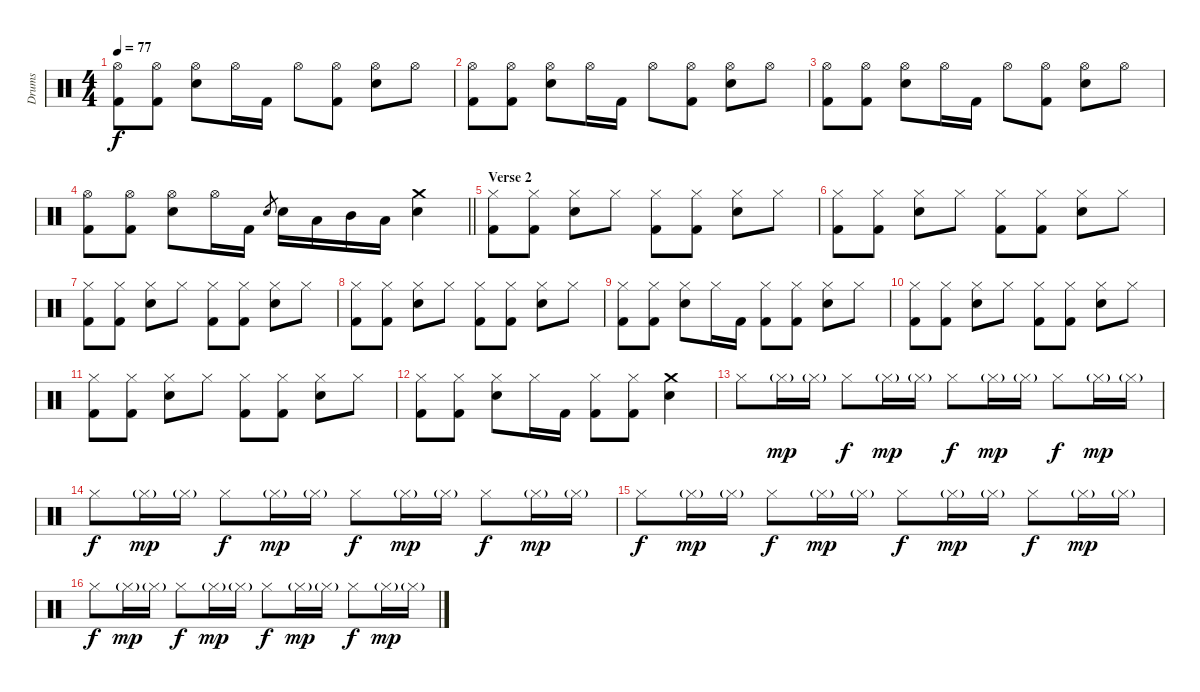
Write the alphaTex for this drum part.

\track ("Drums" "Drums") {instrument percussion}
\staff {score}
\articulation defaults
\ts (4 4)
\tempo 77
\clef neutral
\ks c
("Kick (hit) 2" "Hi-Hat (open)").8{dy f} ("Kick (hit) 2" "Hi-Hat (open)").8 ("Electric Snare (hit)" "Hi-Hat (open)").8 "Hi-Hat (open)".16 "Kick (hit) 2".16 "Hi-Hat (open)".8 ("Kick (hit) 2" "Hi-Hat (open)").8 ("Electric Snare (hit)" "Hi-Hat (open)").8 "Hi-Hat (open)".8 |
("Kick (hit) 2" "Hi-Hat (open)").8 ("Kick (hit) 2" "Hi-Hat (open)").8 ("Electric Snare (hit)" "Hi-Hat (open)").8 "Hi-Hat (open)".16 "Kick (hit) 2".16 "Hi-Hat (open)".8 ("Kick (hit) 2" "Hi-Hat (open)").8 ("Electric Snare (hit)" "Hi-Hat (open)").8 "Hi-Hat (open)".8 |
("Kick (hit) 2" "Hi-Hat (open)").8 ("Kick (hit) 2" "Hi-Hat (open)").8 ("Electric Snare (hit)" "Hi-Hat (open)").8 "Hi-Hat (open)".16 "Kick (hit) 2".16 "Hi-Hat (open)".8 ("Kick (hit) 2" "Hi-Hat (open)").8 ("Electric Snare (hit)" "Hi-Hat (open)").8 "Hi-Hat (open)".8 |
\barLineRight lightlight
("Kick (hit) 2" "Hi-Hat (open)").8 ("Kick (hit) 2" "Hi-Hat (open)").8 ("Electric Snare (hit)" "Hi-Hat (open)").8 "Hi-Hat (open)".16 "Kick (hit) 2".16 "Electric Snare (hit)".8{gr} "Electric Snare (hit)".16 "Low Tom (hit)".16 "Mid Tom (hit)".16 "Low Tom (hit)".16 ("Electric Snare (hit)" "Crash medium (hit)").4 |
\section ("" "Verse 2")
("Kick (hit) 2" "Hi-Hat (closed)").8 ("Kick (hit) 2" "Hi-Hat (closed)").8 ("Electric Snare (hit)" "Hi-Hat (closed)").8 "Hi-Hat (closed)".8 ("Kick (hit) 2" "Hi-Hat (closed)").8 ("Kick (hit) 2" "Hi-Hat (closed)").8 ("Electric Snare (hit)" "Hi-Hat (closed)").8 "Hi-Hat (closed)".8 |
("Kick (hit) 2" "Hi-Hat (closed)").8 ("Kick (hit) 2" "Hi-Hat (closed)").8 ("Electric Snare (hit)" "Hi-Hat (closed)").8 "Hi-Hat (closed)".8 ("Kick (hit) 2" "Hi-Hat (closed)").8 ("Kick (hit) 2" "Hi-Hat (closed)").8 ("Electric Snare (hit)" "Hi-Hat (closed)").8 "Hi-Hat (closed)".8 |
("Kick (hit) 2" "Hi-Hat (closed)").8 ("Kick (hit) 2" "Hi-Hat (closed)").8 ("Electric Snare (hit)" "Hi-Hat (closed)").8 "Hi-Hat (closed)".8 ("Kick (hit) 2" "Hi-Hat (closed)").8 ("Kick (hit) 2" "Hi-Hat (closed)").8 ("Electric Snare (hit)" "Hi-Hat (closed)").8 "Hi-Hat (closed)".8 |
("Kick (hit) 2" "Hi-Hat (closed)").8 ("Kick (hit) 2" "Hi-Hat (closed)").8 ("Electric Snare (hit)" "Hi-Hat (closed)").8 "Hi-Hat (closed)".8 ("Kick (hit) 2" "Hi-Hat (closed)").8 ("Kick (hit) 2" "Hi-Hat (closed)").8 ("Electric Snare (hit)" "Hi-Hat (closed)").8 "Hi-Hat (closed)".8 |
("Kick (hit) 2" "Hi-Hat (closed)").8 ("Kick (hit) 2" "Hi-Hat (closed)").8 ("Electric Snare (hit)" "Hi-Hat (closed)").8 "Hi-Hat (closed)".16 "Kick (hit) 2".16 ("Kick (hit) 2" "Hi-Hat (closed)").8 ("Kick (hit) 2" "Hi-Hat (closed)").8 ("Electric Snare (hit)" "Hi-Hat (closed)").8 "Hi-Hat (closed)".8 |
("Kick (hit) 2" "Hi-Hat (closed)").8 ("Kick (hit) 2" "Hi-Hat (closed)").8 ("Electric Snare (hit)" "Hi-Hat (closed)").8 "Hi-Hat (closed)".8 ("Kick (hit) 2" "Hi-Hat (closed)").8 ("Kick (hit) 2" "Hi-Hat (closed)").8 ("Electric Snare (hit)" "Hi-Hat (closed)").8 "Hi-Hat (closed)".8 |
("Kick (hit) 2" "Hi-Hat (closed)").8 ("Kick (hit) 2" "Hi-Hat (closed)").8 ("Electric Snare (hit)" "Hi-Hat (closed)").8 "Hi-Hat (closed)".8 ("Kick (hit) 2" "Hi-Hat (closed)").8 ("Kick (hit) 2" "Hi-Hat (closed)").8 ("Electric Snare (hit)" "Hi-Hat (closed)").8 "Hi-Hat (closed)".8 |
("Kick (hit) 2" "Hi-Hat (closed)").8 ("Kick (hit) 2" "Hi-Hat (closed)").8 ("Electric Snare (hit)" "Hi-Hat (closed)").8 "Hi-Hat (closed)".16 "Kick (hit) 2".16 ("Kick (hit) 2" "Hi-Hat (closed)").8 ("Kick (hit) 2" "Hi-Hat (closed)").8 ("Electric Snare (hit)" "Crash medium (hit)").4 |
"Hi-Hat (closed)".8 "Hi-Hat (closed)"{g}.16{dy mp} "Hi-Hat (closed)"{g}.16 "Hi-Hat (closed)".8{dy f} "Hi-Hat (closed)"{g}.16{dy mp} "Hi-Hat (closed)"{g}.16 "Hi-Hat (closed)".8{dy f} "Hi-Hat (closed)"{g}.16{dy mp} "Hi-Hat (closed)"{g}.16 "Hi-Hat (closed)".8{dy f} "Hi-Hat (closed)"{g}.16{dy mp} "Hi-Hat (closed)"{g}.16 |
"Hi-Hat (closed)".8{dy f} "Hi-Hat (closed)"{g}.16{dy mp} "Hi-Hat (closed)"{g}.16 "Hi-Hat (closed)".8{dy f} "Hi-Hat (closed)"{g}.16{dy mp} "Hi-Hat (closed)"{g}.16 "Hi-Hat (closed)".8{dy f} "Hi-Hat (closed)"{g}.16{dy mp} "Hi-Hat (closed)"{g}.16 "Hi-Hat (closed)".8{dy f} "Hi-Hat (closed)"{g}.16{dy mp} "Hi-Hat (closed)"{g}.16 |
"Hi-Hat (closed)".8{dy f} "Hi-Hat (closed)"{g}.16{dy mp} "Hi-Hat (closed)"{g}.16 "Hi-Hat (closed)".8{dy f} "Hi-Hat (closed)"{g}.16{dy mp} "Hi-Hat (closed)"{g}.16 "Hi-Hat (closed)".8{dy f} "Hi-Hat (closed)"{g}.16{dy mp} "Hi-Hat (closed)"{g}.16 "Hi-Hat (closed)".8{dy f} "Hi-Hat (closed)"{g}.16{dy mp} "Hi-Hat (closed)"{g}.16 |
"Hi-Hat (closed)".8{dy f} "Hi-Hat (closed)"{g}.16{dy mp} "Hi-Hat (closed)"{g}.16 "Hi-Hat (closed)".8{dy f} "Hi-Hat (closed)"{g}.16{dy mp} "Hi-Hat (closed)"{g}.16 "Hi-Hat (closed)".8{dy f} "Hi-Hat (closed)"{g}.16{dy mp} "Hi-Hat (closed)"{g}.16 "Hi-Hat (closed)".8{dy f} "Hi-Hat (closed)"{g}.16{dy mp} "Hi-Hat (closed)"{g}.16
